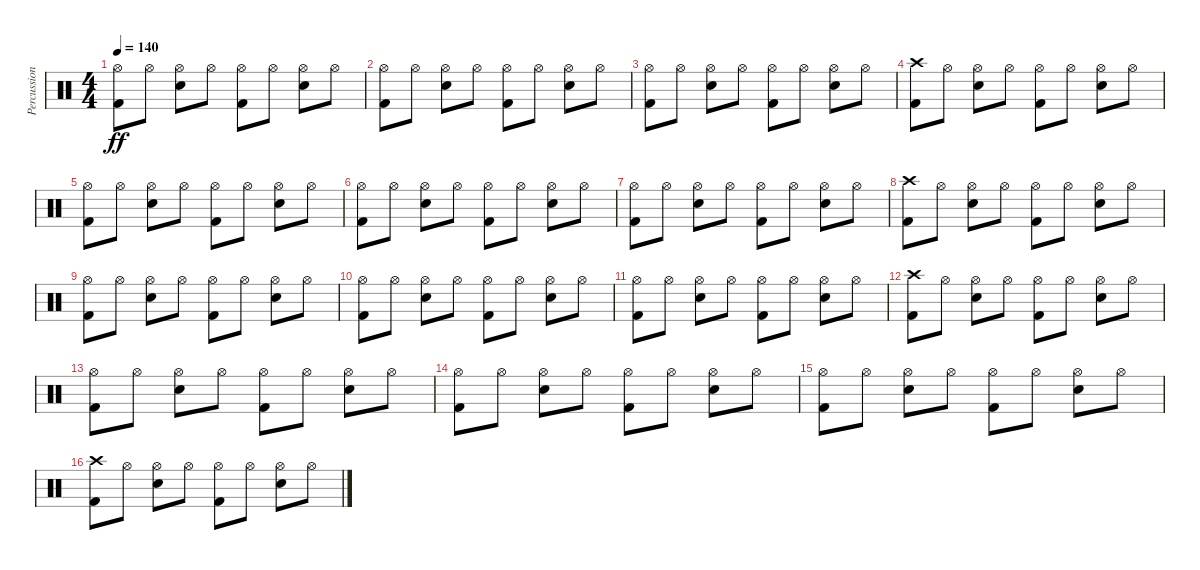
\track ("Percussion" "Percussion") {instrument percussion}
\staff {score}
\articulation defaults
\ts (4 4)
\tempo 140
\clef neutral
\ks c
("Hi-Hat (open)" "Kick (hit) 2").8{dy ff} "Hi-Hat (open)".8 ("Hi-Hat (open)" "Snare (hit) 2").8 "Hi-Hat (open)".8 ("Hi-Hat (open)" "Kick (hit) 2").8 "Hi-Hat (open)".8 ("Hi-Hat (open)" "Snare (hit) 2").8 "Hi-Hat (open)".8 |
("Hi-Hat (open)" "Kick (hit) 2").8 "Hi-Hat (open)".8 ("Hi-Hat (open)" "Snare (hit) 2").8 "Hi-Hat (open)".8 ("Hi-Hat (open)" "Kick (hit) 2").8 "Hi-Hat (open)".8 ("Hi-Hat (open)" "Snare (hit) 2").8 "Hi-Hat (open)".8 |
("Hi-Hat (open)" "Kick (hit) 2").8 "Hi-Hat (open)".8 ("Hi-Hat (open)" "Snare (hit) 2").8 "Hi-Hat (open)".8 ("Hi-Hat (open)" "Kick (hit) 2").8 "Hi-Hat (open)".8 ("Hi-Hat (open)" "Snare (hit) 2").8 "Hi-Hat (open)".8 |
("Crash high (hit)" "Kick (hit) 2").8 "Hi-Hat (open)".8 ("Hi-Hat (open)" "Snare (hit) 2").8 "Hi-Hat (open)".8 ("Hi-Hat (open)" "Kick (hit) 2").8 "Hi-Hat (open)".8 ("Hi-Hat (open)" "Snare (hit) 2").8 "Hi-Hat (open)".8 |
("Hi-Hat (open)" "Kick (hit) 2").8 "Hi-Hat (open)".8 ("Hi-Hat (open)" "Snare (hit) 2").8 "Hi-Hat (open)".8 ("Hi-Hat (open)" "Kick (hit) 2").8 "Hi-Hat (open)".8 ("Hi-Hat (open)" "Snare (hit) 2").8 "Hi-Hat (open)".8 |
("Hi-Hat (open)" "Kick (hit) 2").8 "Hi-Hat (open)".8 ("Hi-Hat (open)" "Snare (hit) 2").8 "Hi-Hat (open)".8 ("Hi-Hat (open)" "Kick (hit) 2").8 "Hi-Hat (open)".8 ("Hi-Hat (open)" "Snare (hit) 2").8 "Hi-Hat (open)".8 |
("Hi-Hat (open)" "Kick (hit) 2").8 "Hi-Hat (open)".8 ("Hi-Hat (open)" "Snare (hit) 2").8 "Hi-Hat (open)".8 ("Hi-Hat (open)" "Kick (hit) 2").8 "Hi-Hat (open)".8 ("Hi-Hat (open)" "Snare (hit) 2").8 "Hi-Hat (open)".8 |
("Crash high (hit)" "Kick (hit) 2").8 "Hi-Hat (open)".8 ("Hi-Hat (open)" "Snare (hit) 2").8 "Hi-Hat (open)".8 ("Hi-Hat (open)" "Kick (hit) 2").8 "Hi-Hat (open)".8 ("Hi-Hat (open)" "Snare (hit) 2").8 "Hi-Hat (open)".8 |
("Hi-Hat (open)" "Kick (hit) 2").8 "Hi-Hat (open)".8 ("Hi-Hat (open)" "Snare (hit) 2").8 "Hi-Hat (open)".8 ("Hi-Hat (open)" "Kick (hit) 2").8 "Hi-Hat (open)".8 ("Hi-Hat (open)" "Snare (hit) 2").8 "Hi-Hat (open)".8 |
("Hi-Hat (open)" "Kick (hit) 2").8 "Hi-Hat (open)".8 ("Hi-Hat (open)" "Snare (hit) 2").8 "Hi-Hat (open)".8 ("Hi-Hat (open)" "Kick (hit) 2").8 "Hi-Hat (open)".8 ("Hi-Hat (open)" "Snare (hit) 2").8 "Hi-Hat (open)".8 |
("Hi-Hat (open)" "Kick (hit) 2").8 "Hi-Hat (open)".8 ("Hi-Hat (open)" "Snare (hit) 2").8 "Hi-Hat (open)".8 ("Hi-Hat (open)" "Kick (hit) 2").8 "Hi-Hat (open)".8 ("Hi-Hat (open)" "Snare (hit) 2").8 "Hi-Hat (open)".8 |
("Crash high (hit)" "Kick (hit) 2").8 "Hi-Hat (open)".8 ("Hi-Hat (open)" "Snare (hit) 2").8 "Hi-Hat (open)".8 ("Hi-Hat (open)" "Kick (hit) 2").8 "Hi-Hat (open)".8 ("Hi-Hat (open)" "Snare (hit) 2").8 "Hi-Hat (open)".8 |
("Hi-Hat (open)" "Kick (hit) 2").8 "Hi-Hat (open)".8 ("Hi-Hat (open)" "Snare (hit) 2").8 "Hi-Hat (open)".8 ("Hi-Hat (open)" "Kick (hit) 2").8 "Hi-Hat (open)".8 ("Hi-Hat (open)" "Snare (hit) 2").8 "Hi-Hat (open)".8 |
("Hi-Hat (open)" "Kick (hit) 2").8 "Hi-Hat (open)".8 ("Hi-Hat (open)" "Snare (hit) 2").8 "Hi-Hat (open)".8 ("Hi-Hat (open)" "Kick (hit) 2").8 "Hi-Hat (open)".8 ("Hi-Hat (open)" "Snare (hit) 2").8 "Hi-Hat (open)".8 |
("Hi-Hat (open)" "Kick (hit) 2").8 "Hi-Hat (open)".8 ("Hi-Hat (open)" "Snare (hit) 2").8 "Hi-Hat (open)".8 ("Hi-Hat (open)" "Kick (hit) 2").8 "Hi-Hat (open)".8 ("Hi-Hat (open)" "Snare (hit) 2").8 "Hi-Hat (open)".8 |
("Crash high (hit)" "Kick (hit) 2").8 "Hi-Hat (open)".8 ("Hi-Hat (open)" "Snare (hit) 2").8 "Hi-Hat (open)".8 ("Hi-Hat (open)" "Kick (hit) 2").8 "Hi-Hat (open)".8 ("Hi-Hat (open)" "Snare (hit) 2").8 "Hi-Hat (open)".8
